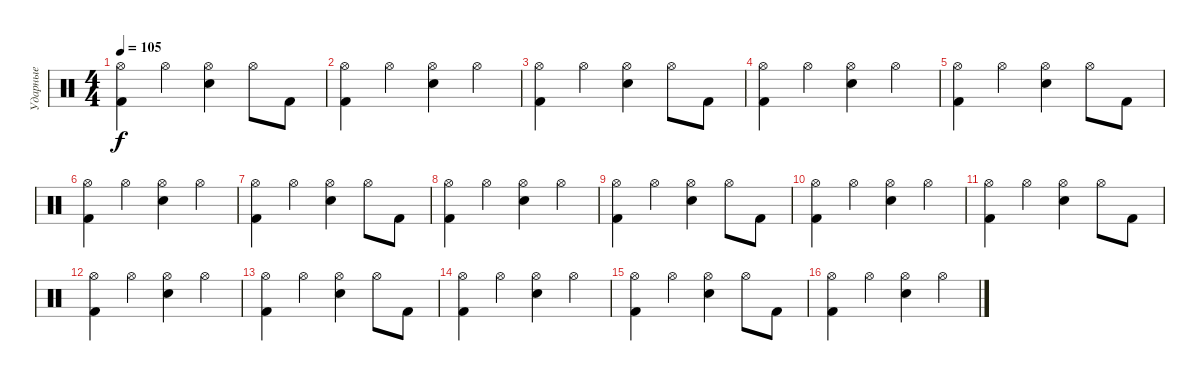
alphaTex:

\track ("Ударные" "Ударные") {instrument percussion}
\staff {score}
\articulation defaults
\ts (4 4)
\tempo 105
\clef neutral
\ks c
("Hi-Hat (open)" "Kick (hit) 2").4{dy f} "Hi-Hat (open)".4 ("Electric Snare (hit)" "Hi-Hat (open)").4 "Hi-Hat (open)".8 "Kick (hit) 2".8 |
("Kick (hit) 2" "Hi-Hat (open)").4 "Hi-Hat (open)".4 ("Hi-Hat (open)" "Electric Snare (hit)").4 "Hi-Hat (open)".4 |
("Hi-Hat (open)" "Kick (hit) 2").4 "Hi-Hat (open)".4 ("Electric Snare (hit)" "Hi-Hat (open)").4 "Hi-Hat (open)".8 "Kick (hit) 2".8 |
("Kick (hit) 2" "Hi-Hat (open)").4 "Hi-Hat (open)".4 ("Hi-Hat (open)" "Electric Snare (hit)").4 "Hi-Hat (open)".4 |
("Hi-Hat (open)" "Kick (hit) 2").4 "Hi-Hat (open)".4 ("Electric Snare (hit)" "Hi-Hat (open)").4 "Hi-Hat (open)".8 "Kick (hit) 2".8 |
("Kick (hit) 2" "Hi-Hat (open)").4 "Hi-Hat (open)".4 ("Hi-Hat (open)" "Electric Snare (hit)").4 "Hi-Hat (open)".4 |
("Hi-Hat (open)" "Kick (hit) 2").4 "Hi-Hat (open)".4 ("Electric Snare (hit)" "Hi-Hat (open)").4 "Hi-Hat (open)".8 "Kick (hit) 2".8 |
("Kick (hit) 2" "Hi-Hat (open)").4 "Hi-Hat (open)".4 ("Hi-Hat (open)" "Electric Snare (hit)").4 "Hi-Hat (open)".4 |
("Hi-Hat (open)" "Kick (hit) 2").4 "Hi-Hat (open)".4 ("Electric Snare (hit)" "Hi-Hat (open)").4 "Hi-Hat (open)".8 "Kick (hit) 2".8 |
("Kick (hit) 2" "Hi-Hat (open)").4 "Hi-Hat (open)".4 ("Hi-Hat (open)" "Electric Snare (hit)").4 "Hi-Hat (open)".4 |
("Hi-Hat (open)" "Kick (hit) 2").4 "Hi-Hat (open)".4 ("Electric Snare (hit)" "Hi-Hat (open)").4 "Hi-Hat (open)".8 "Kick (hit) 2".8 |
("Kick (hit) 2" "Hi-Hat (open)").4 "Hi-Hat (open)".4 ("Hi-Hat (open)" "Electric Snare (hit)").4 "Hi-Hat (open)".4 |
("Hi-Hat (open)" "Kick (hit) 2").4 "Hi-Hat (open)".4 ("Electric Snare (hit)" "Hi-Hat (open)").4 "Hi-Hat (open)".8 "Kick (hit) 2".8 |
("Kick (hit) 2" "Hi-Hat (open)").4 "Hi-Hat (open)".4 ("Hi-Hat (open)" "Electric Snare (hit)").4 "Hi-Hat (open)".4 |
("Hi-Hat (open)" "Kick (hit) 2").4 "Hi-Hat (open)".4 ("Electric Snare (hit)" "Hi-Hat (open)").4 "Hi-Hat (open)".8 "Kick (hit) 2".8 |
("Kick (hit) 2" "Hi-Hat (open)").4 "Hi-Hat (open)".4 ("Hi-Hat (open)" "Electric Snare (hit)").4 "Hi-Hat (open)".4
